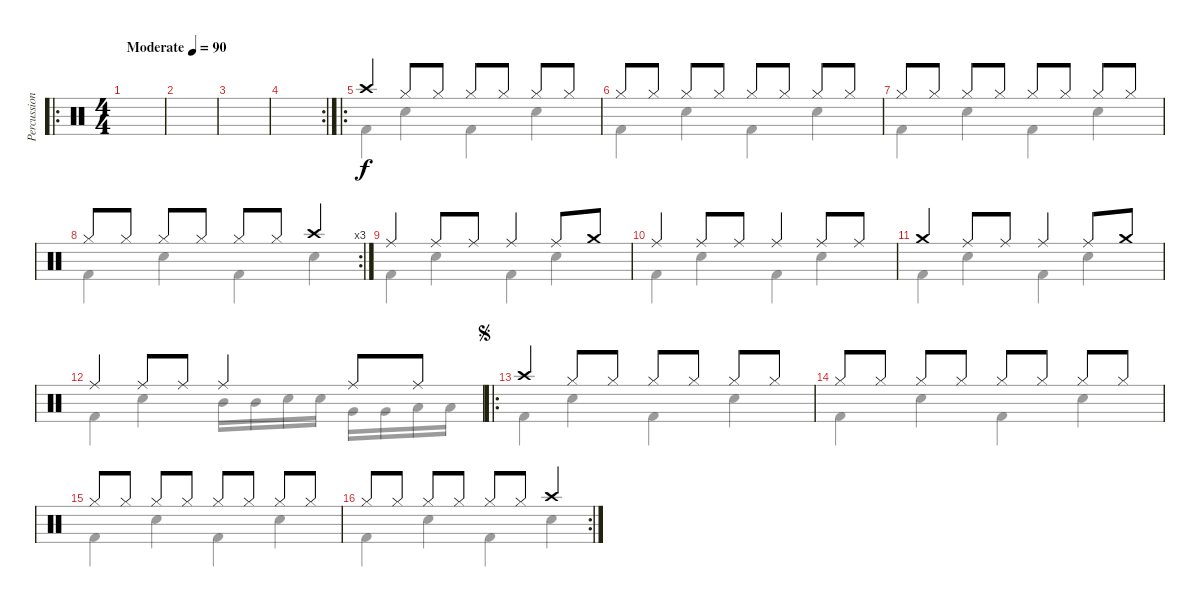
\track ("Percussion" "Percussion") {instrument percussion}
\staff {score}
\articulation defaults
\voice
\ro
\ts (4 4)
\tempo (90 "Moderate")
\clef neutral
\ks c
|
|
|
\rc 2
|
\ro "Crash high (hit)".4 "Hi-Hat (closed)".8 "Hi-Hat (closed)".8 "Hi-Hat (closed)".8 "Hi-Hat (closed)".8 "Hi-Hat (closed)".8 "Hi-Hat (closed)".8
|
"Hi-Hat (closed)".8 "Hi-Hat (closed)".8 "Hi-Hat (closed)".8 "Hi-Hat (closed)".8 "Hi-Hat (closed)".8 "Hi-Hat (closed)".8 "Hi-Hat (closed)".8 "Hi-Hat (closed)".8 |
"Hi-Hat (closed)".8 "Hi-Hat (closed)".8 "Hi-Hat (closed)".8 "Hi-Hat (closed)".8 "Hi-Hat (closed)".8 "Hi-Hat (closed)".8 "Hi-Hat (closed)".8 "Hi-Hat (closed)".8 |
\rc 3 "Hi-Hat (closed)".8 "Hi-Hat (closed)".8 "Hi-Hat (closed)".8 "Hi-Hat (closed)".8 "Hi-Hat (closed)".8 "Hi-Hat (closed)".8 "Crash high (hit)".4
|
"Ride (middle)".4 "Ride (middle)".8 "Ride (middle)".8 "Ride (middle)".4 "Ride (middle)".8 "Crash medium (hit)".8 |
"Ride (middle)".4 "Ride (middle)".8 "Ride (middle)".8 "Ride (middle)".4 "Ride (middle)".8 "Ride (middle)".8 |
"Crash medium (hit)".4 "Ride (middle)".8 "Ride (middle)".8 "Ride (middle)".4 "Ride (middle)".8 "Crash medium (hit)".8 |
"Ride (middle)".4 "Ride (middle)".8 "Ride (middle)".8 "Ride (middle)".4 "Ride (middle)".8 "Ride (middle)".8 |
\ro
\jump segno "Crash high (hit)".4 "Hi-Hat (closed)".8 "Hi-Hat (closed)".8 "Hi-Hat (closed)".8 "Hi-Hat (closed)".8 "Hi-Hat (closed)".8 "Hi-Hat (closed)".8
|
"Hi-Hat (closed)".8 "Hi-Hat (closed)".8 "Hi-Hat (closed)".8 "Hi-Hat (closed)".8 "Hi-Hat (closed)".8 "Hi-Hat (closed)".8 "Hi-Hat (closed)".8 "Hi-Hat (closed)".8 |
"Hi-Hat (closed)".8 "Hi-Hat (closed)".8 "Hi-Hat (closed)".8 "Hi-Hat (closed)".8 "Hi-Hat (closed)".8 "Hi-Hat (closed)".8 "Hi-Hat (closed)".8 "Hi-Hat (closed)".8 |
\rc 2 "Hi-Hat (closed)".8 "Hi-Hat (closed)".8 "Hi-Hat (closed)".8 "Hi-Hat (closed)".8 "Hi-Hat (closed)".8 "Hi-Hat (closed)".8 "Crash high (hit)".4
\voice
\clef neutral
\ottava regular
\simile none
\ks c
|
|
|
|
"Kick (hit) 2".4 "Snare (hit) 2".4 "Kick (hit) 2".4 "Snare (hit) 2".4 |
"Kick (hit) 2".4 "Snare (hit) 2".4 "Kick (hit) 2".4 "Snare (hit) 2".4 |
"Kick (hit) 2".4 "Snare (hit) 2".4 "Kick (hit) 2".4 "Snare (hit) 2".4 |
"Kick (hit) 2".4 "Snare (hit) 2".4 "Kick (hit) 2".4 "Snare (hit) 2".4 |
"Kick (hit) 2".4 "Snare (hit) 2".4 "Kick (hit) 2".4 "Snare (hit) 2".4 |
"Kick (hit) 2".4 "Snare (hit) 2".4 "Kick (hit) 2".4 "Snare (hit) 2".4 |
"Kick (hit) 2".4 "Snare (hit) 2".4 "Kick (hit) 2".4 "Snare (hit) 2".4 |
"Kick (hit) 2".4 "Snare (hit) 2".4 "Mid Tom (hit)".16 "Mid Tom (hit)".16 "Snare (hit) 2".16 "Snare (hit) 2".16 "Very Low Tom (hit)".16 "Very Low Tom (hit)".16 "Low Floor Tom (hit)".16 "Low Floor Tom (hit)".16 |
"Kick (hit) 2".4 "Snare (hit) 2".4 "Kick (hit) 2".4 "Snare (hit) 2".4 |
"Kick (hit) 2".4 "Snare (hit) 2".4 "Kick (hit) 2".4 "Snare (hit) 2".4 |
"Kick (hit) 2".4 "Snare (hit) 2".4 "Kick (hit) 2".4 "Snare (hit) 2".4 |
"Kick (hit) 2".4 "Snare (hit) 2".4 "Kick (hit) 2".4 "Snare (hit) 2".4
